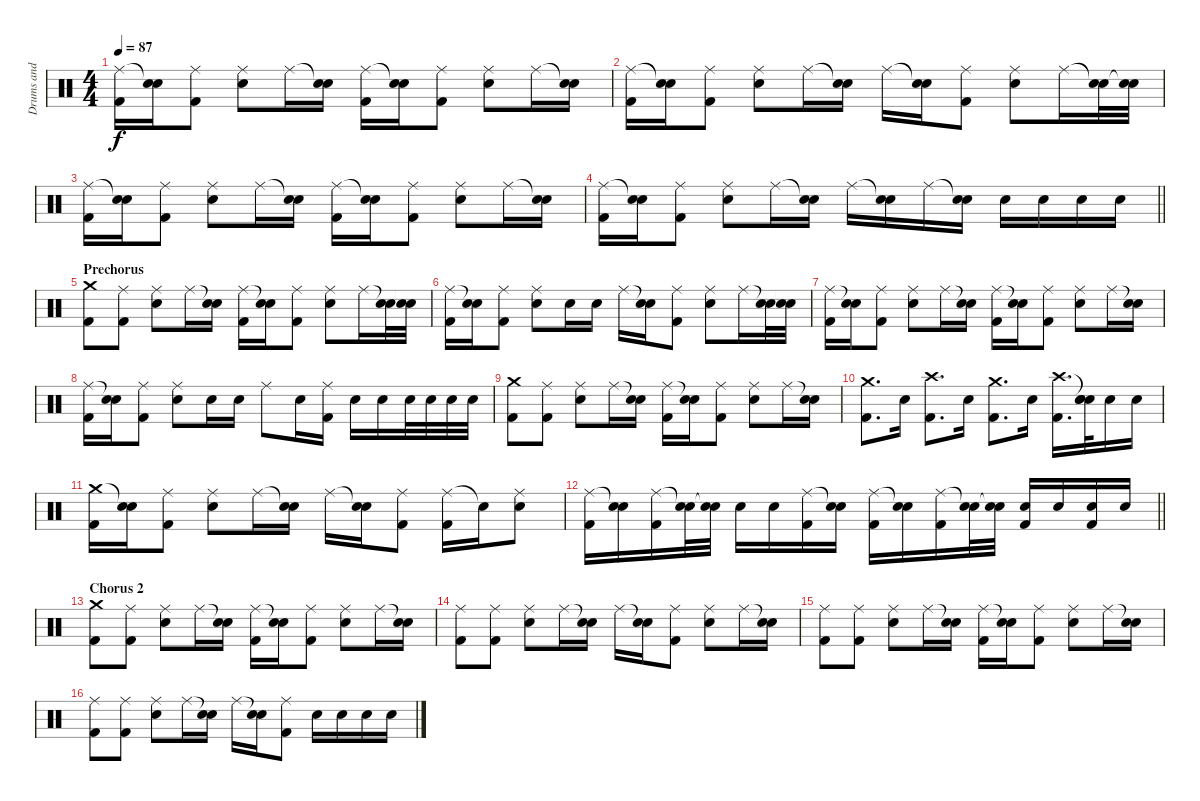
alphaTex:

\track ("Drums and Percussion" "Drums and ") {instrument percussion}
\staff {score}
\articulation defaults
\ts (4 4)
\tempo 87
\clef neutral
\ks c
("Ride (middle)" "Kick (hit) 2").16{dy f} ("Snare (hit)"{t} "Snare (hit) 2").16 ("Ride (middle)" "Kick (hit) 2").8 ("Ride (middle)" "Snare (hit) 2").8 "Ride (middle)".16 ("Snare (hit)"{t} "Snare (hit) 2").16 ("Ride (middle)" "Kick (hit) 2").16 ("Snare (hit)"{t} "Snare (hit) 2").16 ("Ride (middle)" "Kick (hit) 2").8 ("Ride (middle)" "Snare (hit) 2").8 "Ride (middle)".16 ("Snare (hit)"{t} "Snare (hit) 2").16 |
("Ride (middle)" "Kick (hit) 2").16 ("Snare (hit)"{t} "Snare (hit) 2").16 ("Ride (middle)" "Kick (hit) 2").8 ("Ride (middle)" "Snare (hit) 2").8 "Ride (middle)".16 ("Snare (hit)"{t} "Snare (hit) 2").16 "Ride (middle)".16 ("Snare (hit)"{t} "Snare (hit) 2").16 ("Ride (middle)" "Kick (hit) 2").8 ("Ride (middle)" "Snare (hit) 2").8 "Ride (middle)".16 ("Snare (hit)"{t} "Snare (hit) 2").32 ("Snare (hit)"{t} "Snare (hit) 2").32 |
("Ride (middle)" "Kick (hit) 2").16 ("Snare (hit)"{t} "Snare (hit) 2").16 ("Ride (middle)" "Kick (hit) 2").8 ("Ride (middle)" "Snare (hit) 2").8 "Ride (middle)".16 ("Snare (hit)"{t} "Snare (hit) 2").16 ("Ride (middle)" "Kick (hit) 2").16 ("Snare (hit)"{t} "Snare (hit) 2").16 ("Ride (middle)" "Kick (hit) 2").8 ("Ride (middle)" "Snare (hit) 2").8 "Ride (middle)".16 ("Snare (hit)"{t} "Snare (hit) 2").16 |
\barLineRight lightlight
("Ride (middle)" "Kick (hit) 2").16 ("Snare (hit)"{t} "Snare (hit) 2").16 ("Ride (middle)" "Kick (hit) 2").8 ("Ride (middle)" "Snare (hit) 2").8 "Ride (middle)".16 ("Snare (hit)"{t} "Snare (hit) 2").16 "Ride (middle)".16 ("Snare (hit)"{t} "Snare (hit) 2").16 "Ride (middle)".16 ("Snare (hit)"{t} "Snare (hit) 2").16 "Snare (hit) 2".16 "Snare (hit) 2".16 "Snare (hit) 2".16 "Snare (hit) 2".16 |
\section ("" "Prechorus")
("Crash medium (hit)" "Kick (hit) 2").8 ("Ride (middle)" "Kick (hit) 2").8 ("Ride (middle)" "Snare (hit) 2").8 "Ride (middle)".16 ("Snare (hit)"{t} "Snare (hit) 2").16 ("Ride (middle)" "Kick (hit) 2").16 ("Snare (hit)"{t} "Snare (hit) 2").16 ("Ride (middle)" "Kick (hit) 2").8 ("Ride (middle)" "Snare (hit) 2").8 "Ride (middle)".16 ("Snare (hit)"{t} "Snare (hit) 2").32 ("Snare (hit)"{t} "Snare (hit) 2").32 |
("Ride (middle)" "Kick (hit) 2").16 ("Snare (hit)"{t} "Snare (hit) 2").16 ("Ride (middle)" "Kick (hit) 2").8 ("Ride (middle)" "Snare (hit) 2").8 "Snare (hit) 2".16 "Snare (hit) 2".16 "Ride (middle)".16 ("Snare (hit)"{t} "Snare (hit) 2").16 ("Ride (middle)" "Kick (hit) 2").8 ("Ride (middle)" "Snare (hit) 2").8 "Ride (middle)".16 ("Snare (hit)"{t} "Snare (hit) 2").32 ("Snare (hit)"{t} "Snare (hit) 2").32 |
("Ride (middle)" "Kick (hit) 2").16 ("Snare (hit)"{t} "Snare (hit) 2").16 ("Ride (middle)" "Kick (hit) 2").8 ("Ride (middle)" "Snare (hit) 2").8 "Ride (middle)".16 ("Snare (hit)"{t} "Snare (hit) 2").16 ("Ride (middle)" "Kick (hit) 2").16 ("Snare (hit)"{t} "Snare (hit) 2").16 ("Ride (middle)" "Kick (hit) 2").8 ("Ride (middle)" "Snare (hit) 2").8 "Ride (middle)".16 ("Snare (hit)"{t} "Snare (hit) 2").16 |
("Ride (middle)" "Kick (hit) 2").16 ("Snare (hit)"{t} "Snare (hit) 2").16 ("Ride (middle)" "Kick (hit) 2").8 ("Ride (middle)" "Snare (hit) 2").8 "Snare (hit) 2".16 "Snare (hit) 2".16 "Ride (middle)".8 "Snare (hit) 2".16 ("Ride (middle)" "Kick (hit) 2").16 "Snare (hit) 2".16 "Snare (hit) 2".16 "Snare (hit) 2".32 "Snare (hit) 2".32 "Snare (hit) 2".32 "Snare (hit) 2".32 |
("Crash medium (hit)" "Kick (hit) 2").8 ("Ride (middle)" "Kick (hit) 2").8 ("Ride (middle)" "Snare (hit) 2").8 "Ride (middle)".16 ("Snare (hit)"{t} "Snare (hit) 2").16 ("Ride (middle)" "Kick (hit) 2").16 ("Snare (hit)"{t} "Snare (hit) 2").16 ("Ride (middle)" "Kick (hit) 2").8 ("Ride (middle)" "Snare (hit) 2").8 "Ride (middle)".16 ("Snare (hit)"{t} "Snare (hit) 2").16 |
("Crash medium (hit)" "Kick (hit) 2").8{d} "Snare (hit) 2".16 ("Crash high (hit)" "Kick (hit) 2").8{d} "Snare (hit) 2".16 ("Crash medium (hit)" "Kick (hit) 2").8{d} "Snare (hit) 2".16 ("Crash high (hit)" "Kick (hit) 2").16{d} ("Snare (hit)"{t} "Snare (hit) 2" "Snare (hit)").32 "Snare (hit) 2".16 "Snare (hit) 2".16 |
("Crash medium (hit)" "Kick (hit) 2").16 ("Snare (hit)"{t} "Snare (hit) 2").16 ("Ride (middle)" "Kick (hit) 2").8 ("Ride (middle)" "Snare (hit) 2").8 "Ride (middle)".16 ("Snare (hit)"{t} "Snare (hit) 2").16 "Ride (middle)".16 ("Snare (hit)"{t} "Snare (hit) 2").16 ("Ride (middle)" "Kick (hit) 2").8 ("Ride (middle)" "Kick (hit) 2").16 "Snare (hit)"{t}.16 ("Ride (middle)" "Snare (hit) 2").8 |
\barLineRight lightlight
("Ride (middle)" "Kick (hit) 2").16 ("Snare (hit)"{t} "Snare (hit) 2").16 ("Ride (middle)" "Kick (hit) 2").16 ("Snare (hit)"{t} "Snare (hit) 2").32 ("Snare (hit)"{t} "Snare (hit) 2").32 "Snare (hit) 2".16 "Snare (hit) 2".16 ("Ride (middle)" "Kick (hit) 2").16 ("Snare (hit)"{t} "Snare (hit) 2").16 ("Ride (middle)" "Kick (hit) 2").16 ("Snare (hit)"{t} "Snare (hit) 2").16 ("Ride (middle)" "Kick (hit) 2").16 ("Snare (hit)"{t} "Snare (hit) 2").32 ("Snare (hit)"{t} "Snare (hit) 2").32 ("Snare (hit) 2" "Kick (hit) 2").16 "Snare (hit) 2".16 ("Snare (hit) 2" "Kick (hit) 2").16 "Snare (hit) 2".16 |
\section ("" "Chorus 2")
("Crash medium (hit)" "Kick (hit) 2").8 ("Ride (middle)" "Kick (hit) 2").8 ("Ride (middle)" "Snare (hit) 2").8 "Ride (middle)".16 ("Snare (hit)"{t} "Snare (hit) 2").16 ("Ride (middle)" "Kick (hit) 2").16 ("Snare (hit)"{t} "Snare (hit) 2").16 ("Ride (middle)" "Kick (hit) 2").8 ("Ride (middle)" "Snare (hit) 2").8 "Ride (middle)".16 ("Snare (hit)"{t} "Snare (hit) 2").16 |
("Ride (middle)" "Kick (hit) 2").8 ("Ride (middle)" "Kick (hit) 2").8 ("Ride (middle)" "Snare (hit) 2").8 "Ride (middle)".16 ("Snare (hit)"{t} "Snare (hit) 2").16 "Ride (middle)".16 ("Snare (hit)"{t} "Snare (hit) 2").16 ("Ride (middle)" "Kick (hit) 2").8 ("Ride (middle)" "Snare (hit) 2").8 "Ride (middle)".16 ("Snare (hit)"{t} "Snare (hit) 2").16 |
("Ride (middle)" "Kick (hit) 2").8 ("Ride (middle)" "Kick (hit) 2").8 ("Ride (middle)" "Snare (hit) 2").8 "Ride (middle)".16 ("Snare (hit)"{t} "Snare (hit) 2").16 ("Ride (middle)" "Kick (hit) 2").16 ("Snare (hit)"{t} "Snare (hit) 2").16 ("Ride (middle)" "Kick (hit) 2").8 ("Ride (middle)" "Snare (hit) 2").8 "Ride (middle)".16 ("Snare (hit)"{t} "Snare (hit) 2").16 |
("Ride (middle)" "Kick (hit) 2").8 ("Ride (middle)" "Kick (hit) 2").8 ("Ride (middle)" "Snare (hit) 2").8 "Ride (middle)".16 ("Snare (hit)"{t} "Snare (hit) 2").16 "Ride (middle)".16 ("Snare (hit)"{t} "Snare (hit) 2").16 ("Ride (middle)" "Kick (hit) 2").8 "Snare (hit) 2".16 "Snare (hit) 2".16 "Snare (hit) 2".16 "Snare (hit) 2".16
